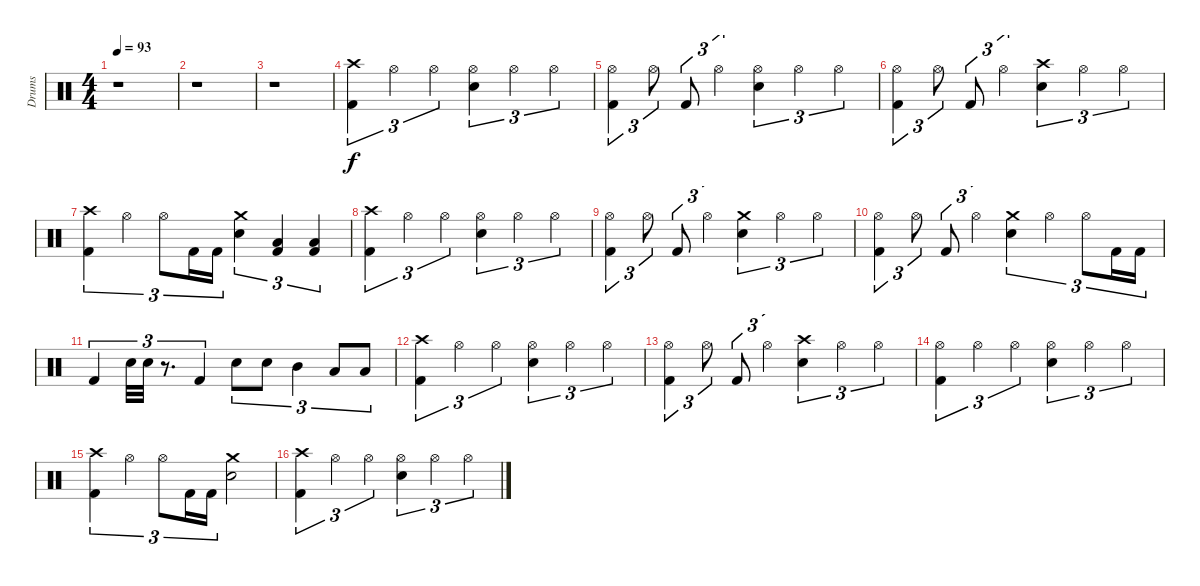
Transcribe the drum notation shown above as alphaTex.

\track ("Drums" "Drums") {instrument percussion}
\staff {score}
\articulation defaults
\ts (4 4)
\tempo 93
\clef neutral
\ks c
r.1{dy f} |
r.1 |
r.1 |
("Crash high (hit)" "Kick (hit) 2").4{tu (3 2)} "Hi-Hat (open)".4{tu (3 2)} "Hi-Hat (open)".4{tu (3 2)} ("Hi-Hat (open)" "Electric Snare (hit)").4{tu (3 2)} "Hi-Hat (open)".4{tu (3 2)} "Hi-Hat (open)".4{tu (3 2)} |
("Hi-Hat (open)" "Kick (hit) 2").4{tu (3 2)} "Hi-Hat (open)".8{tu (3 2)} "Kick (hit) 2".8{tu (3 2)} "Hi-Hat (open)".4{tu (3 2)} ("Hi-Hat (open)" "Electric Snare (hit)").4{tu (3 2)} "Hi-Hat (open)".4{tu (3 2)} "Hi-Hat (open)".4{tu (3 2)} |
("Hi-Hat (open)" "Kick (hit) 2").4{tu (3 2)} "Hi-Hat (open)".8{tu (3 2)} "Kick (hit) 2".8{tu (3 2)} "Hi-Hat (open)".4{tu (3 2)} ("Crash high (hit)" "Electric Snare (hit)").4{tu (3 2)} "Hi-Hat (open)".4{tu (3 2)} "Hi-Hat (open)".4{tu (3 2)} |
("Crash high (hit)" "Kick (hit) 2").4{tu (3 2)} "Hi-Hat (open)".4{tu (3 2)} "Hi-Hat (open)".8{tu (3 2)} "Kick (hit) 2".16{tu (3 2)} "Kick (hit) 2".16{tu (3 2)} ("Crash medium (hit)" "Electric Snare (hit)").4{tu (3 2)} ("Low Floor Tom (hit)" "Kick (hit) 2").4{tu (3 2)} ("Low Floor Tom (hit)" "Kick (hit) 2").4{tu (3 2)} |
("Crash high (hit)" "Kick (hit) 2").4{tu (3 2)} "Hi-Hat (open)".4{tu (3 2)} "Hi-Hat (open)".4{tu (3 2)} ("Hi-Hat (open)" "Electric Snare (hit)").4{tu (3 2)} "Hi-Hat (open)".4{tu (3 2)} "Hi-Hat (open)".4{tu (3 2)} |
("Hi-Hat (open)" "Kick (hit) 2").4{tu (3 2)} "Hi-Hat (open)".8{tu (3 2)} "Kick (hit) 2".8{tu (3 2)} "Hi-Hat (open)".4{tu (3 2)} ("Crash medium (hit)" "Electric Snare (hit)").4{tu (3 2)} "Hi-Hat (open)".4{tu (3 2)} "Hi-Hat (open)".4{tu (3 2)} |
("Hi-Hat (open)" "Kick (hit) 2").4{tu (3 2)} "Hi-Hat (open)".8{tu (3 2)} "Kick (hit) 2".8{tu (3 2)} "Hi-Hat (open)".4{tu (3 2)} ("Crash medium (hit)" "Electric Snare (hit)").4{tu (3 2)} "Hi-Hat (open)".4{tu (3 2)} "Hi-Hat (open)".8{tu (3 2)} "Kick (hit) 2".16{tu (3 2)} "Kick (hit) 2".16{tu (3 2)} |
"Kick (hit) 2".4{tu (3 2)} "Electric Snare (hit)".32{tu (3 2)} "Electric Snare (hit)".32{tu (3 2)} r.8{d tu (3 2)} "Kick (hit) 2".4{tu (3 2)} "Electric Snare (hit)".8{tu (3 2)} "Electric Snare (hit)".8{tu (3 2)} "Mid Tom (hit)".4{tu (3 2)} "Low Tom (hit)".8{tu (3 2)} "Low Tom (hit)".8{tu (3 2)} |
("Crash high (hit)" "Kick (hit) 2").4{tu (3 2)} "Hi-Hat (open)".4{tu (3 2)} "Hi-Hat (open)".4{tu (3 2)} ("Hi-Hat (open)" "Electric Snare (hit)").4{tu (3 2)} "Hi-Hat (open)".4{tu (3 2)} "Hi-Hat (open)".4{tu (3 2)} |
("Hi-Hat (open)" "Kick (hit) 2").4{tu (3 2)} "Hi-Hat (open)".8{tu (3 2)} "Kick (hit) 2".8{tu (3 2)} "Hi-Hat (open)".4{tu (3 2)} ("Crash high (hit)" "Electric Snare (hit)").4{tu (3 2)} "Hi-Hat (open)".4{tu (3 2)} "Hi-Hat (open)".4{tu (3 2)} |
("Hi-Hat (open)" "Kick (hit) 2").4{tu (3 2)} "Hi-Hat (open)".4{tu (3 2)} "Hi-Hat (open)".4{tu (3 2)} ("Hi-Hat (open)" "Electric Snare (hit)").4{tu (3 2)} "Hi-Hat (open)".4{tu (3 2)} "Hi-Hat (open)".4{tu (3 2)} |
("Crash high (hit)" "Kick (hit) 2").4{tu (3 2)} "Hi-Hat (open)".4{tu (3 2)} "Hi-Hat (open)".8{tu (3 2)} "Kick (hit) 2".16{tu (3 2)} "Kick (hit) 2".16{tu (3 2)} ("Crash medium (hit)" "Electric Snare (hit)").2 |
("Crash high (hit)" "Kick (hit) 2").4{tu (3 2)} "Hi-Hat (open)".4{tu (3 2)} "Hi-Hat (open)".4{tu (3 2)} ("Hi-Hat (open)" "Electric Snare (hit)").4{tu (3 2)} "Hi-Hat (open)".4{tu (3 2)} "Hi-Hat (open)".4{tu (3 2)}
